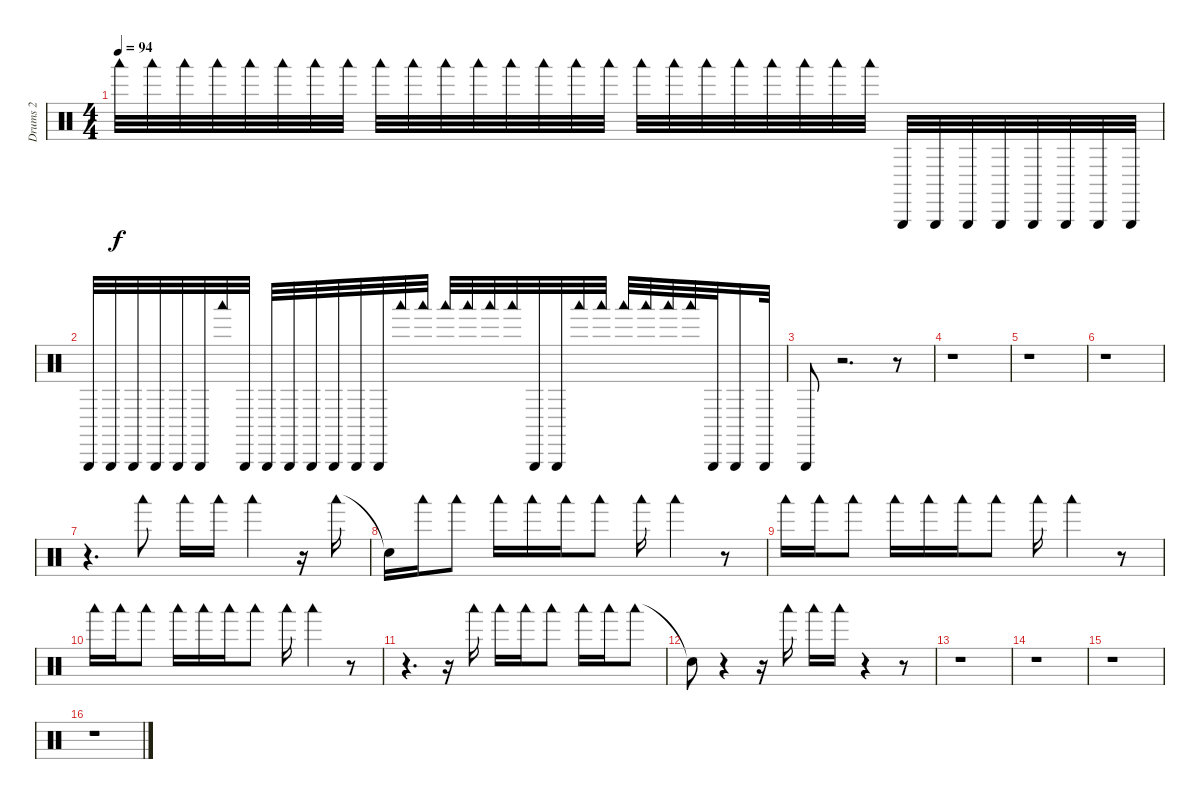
\track ("Drums 2" "Drums 2") {instrument percussion}
\staff {score}
\articulation defaults
\ts (4 4)
\tempo 94
\clef neutral
\ks c "Woodblock low (hit)".32{dy f} "Woodblock low (hit)".32 "Woodblock low (hit)".32 "Woodblock low (hit)".32 "Woodblock low (hit)".32 "Woodblock low (hit)".32 "Woodblock low (hit)".32 "Woodblock low (hit)".32 "Woodblock low (hit)".32 "Woodblock low (hit)".32 "Woodblock low (hit)".32 "Woodblock low (hit)".32 "Woodblock low (hit)".32 "Woodblock low (hit)".32 "Woodblock low (hit)".32 "Woodblock low (hit)".32 "Woodblock low (hit)".32 "Woodblock low (hit)".32 "Woodblock low (hit)".32 "Woodblock low (hit)".32 "Woodblock low (hit)".32 "Woodblock low (hit)".32 "Woodblock low (hit)".32 "Woodblock low (hit)".32 "Triangle (hit)".32 "Triangle (hit)".32 "Triangle (hit)".32 "Triangle (hit)".32 "Triangle (hit)".32 "Triangle (hit)".32 "Triangle (hit)".32 "Triangle (hit)".32
|
"Triangle (hit)".32 "Triangle (hit)".32 "Triangle (hit)".32 "Triangle (hit)".32 "Triangle (hit)".32 "Triangle (hit)".32 "Woodblock low (hit)".32 "Triangle (hit)".32 "Triangle (hit)".32 "Triangle (hit)".32 "Triangle (hit)".32 "Triangle (hit)".32 "Triangle (hit)".32 "Triangle (hit)".32 "Woodblock low (hit)".32 "Woodblock low (hit)".32 "Woodblock low (hit)".32 "Woodblock low (hit)".32 "Woodblock low (hit)".32 "Woodblock low (hit)".32 "Triangle (hit)".32 "Triangle (hit)".32 "Woodblock low (hit)".32 "Woodblock low (hit)".32 "Woodblock low (hit)".32 "Woodblock low (hit)".32 "Woodblock low (hit)".32 "Woodblock low (hit)".32 "Triangle (hit)".32 "Triangle (hit)".16 "Triangle (hit)".32 |
"Triangle (hit)".8 r.2{d} r.8 |
r.1 |
r.1 |
r.1 |
r.4{d} "Woodblock low (hit)".8 "Woodblock low (hit)".16 "Woodblock low (hit)".16 "Woodblock low (hit)".4 r.16 "Woodblock low (hit)".16 |
"Snare (hit)"{t}.16 "Woodblock low (hit)".16 "Woodblock low (hit)".8 "Woodblock low (hit)".16 "Woodblock low (hit)".16 "Woodblock low (hit)".16 "Woodblock low (hit)".8 "Woodblock low (hit)".16 "Woodblock low (hit)".4 r.8 |
"Woodblock low (hit)".16 "Woodblock low (hit)".16 "Woodblock low (hit)".8 "Woodblock low (hit)".16 "Woodblock low (hit)".16 "Woodblock low (hit)".16 "Woodblock low (hit)".8 "Woodblock low (hit)".16 "Woodblock low (hit)".4 r.8 |
"Woodblock low (hit)".16 "Woodblock low (hit)".16 "Woodblock low (hit)".8 "Woodblock low (hit)".16 "Woodblock low (hit)".16 "Woodblock low (hit)".16 "Woodblock low (hit)".8 "Woodblock low (hit)".16 "Woodblock low (hit)".4 r.8 |
r.4{d} r.16 "Woodblock low (hit)".16 "Woodblock low (hit)".16 "Woodblock low (hit)".16 "Woodblock low (hit)".8 "Woodblock low (hit)".16 "Woodblock low (hit)".16 "Woodblock low (hit)".8 |
"Snare (hit)"{t}.8 r.4 r.16 "Woodblock low (hit)".16 "Woodblock low (hit)".16 "Woodblock low (hit)".16 r.4 r.8 |
r.1 |
r.1 |
r.1 |
r.1
